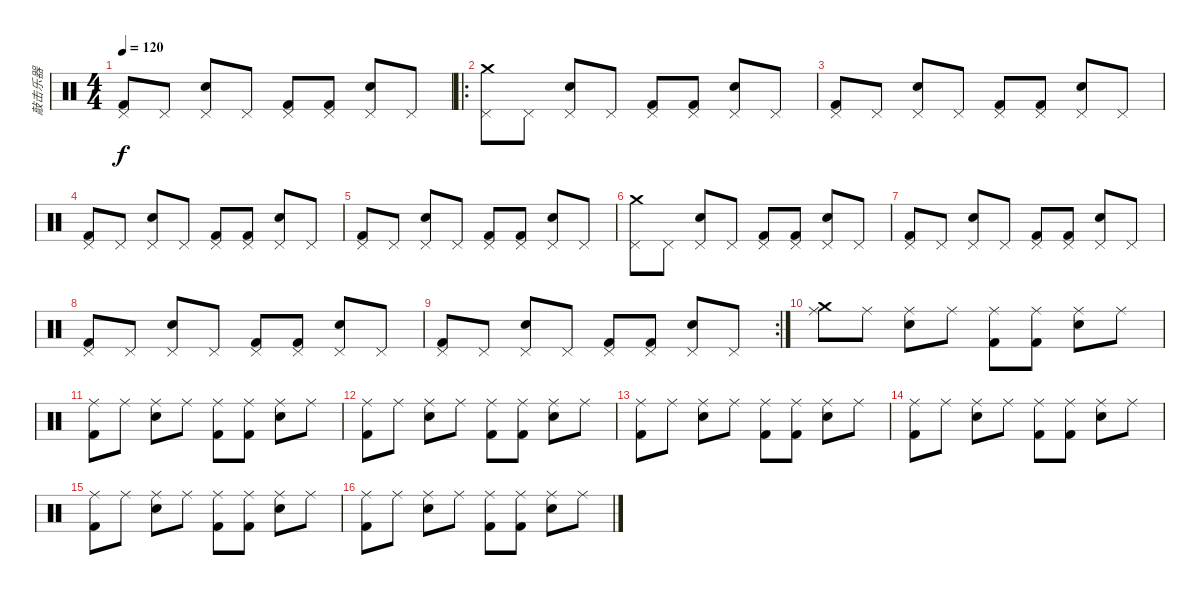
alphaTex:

\track ("敲击乐器" "敲击乐器") {instrument percussion}
\staff {score}
\articulation defaults
\ts (4 4)
\tempo 120
\clef neutral
\ks c
("Kick (hit) 2" "Pedal Hi-Hat (hit)").8{dy f} "Pedal Hi-Hat (hit)".8 ("Electric Snare (hit)" "Pedal Hi-Hat (hit)").8 "Pedal Hi-Hat (hit)".8 ("Kick (hit) 2" "Pedal Hi-Hat (hit)").8 ("Kick (hit) 2" "Pedal Hi-Hat (hit)").8 ("Electric Snare (hit)" "Pedal Hi-Hat (hit)").8 "Pedal Hi-Hat (hit)".8 |
\ro
("Crash medium (hit)" "Pedal Hi-Hat (hit)").8 "Pedal Hi-Hat (hit)".8 ("Electric Snare (hit)" "Pedal Hi-Hat (hit)").8 "Pedal Hi-Hat (hit)".8 ("Kick (hit) 2" "Pedal Hi-Hat (hit)").8 ("Kick (hit) 2" "Pedal Hi-Hat (hit)").8 ("Electric Snare (hit)" "Pedal Hi-Hat (hit)").8 "Pedal Hi-Hat (hit)".8 |
("Kick (hit) 2" "Pedal Hi-Hat (hit)").8 "Pedal Hi-Hat (hit)".8 ("Electric Snare (hit)" "Pedal Hi-Hat (hit)").8 "Pedal Hi-Hat (hit)".8 ("Kick (hit) 2" "Pedal Hi-Hat (hit)").8 ("Kick (hit) 2" "Pedal Hi-Hat (hit)").8 ("Electric Snare (hit)" "Pedal Hi-Hat (hit)").8 "Pedal Hi-Hat (hit)".8 |
("Kick (hit) 2" "Pedal Hi-Hat (hit)").8 "Pedal Hi-Hat (hit)".8 ("Electric Snare (hit)" "Pedal Hi-Hat (hit)").8 "Pedal Hi-Hat (hit)".8 ("Kick (hit) 2" "Pedal Hi-Hat (hit)").8 ("Kick (hit) 2" "Pedal Hi-Hat (hit)").8 ("Electric Snare (hit)" "Pedal Hi-Hat (hit)").8 "Pedal Hi-Hat (hit)".8 |
("Kick (hit) 2" "Pedal Hi-Hat (hit)").8 "Pedal Hi-Hat (hit)".8 ("Electric Snare (hit)" "Pedal Hi-Hat (hit)").8 "Pedal Hi-Hat (hit)".8 ("Kick (hit) 2" "Pedal Hi-Hat (hit)").8 ("Kick (hit) 2" "Pedal Hi-Hat (hit)").8 ("Electric Snare (hit)" "Pedal Hi-Hat (hit)").8 "Pedal Hi-Hat (hit)".8 |
("Crash medium (hit)" "Pedal Hi-Hat (hit)").8 "Pedal Hi-Hat (hit)".8 ("Electric Snare (hit)" "Pedal Hi-Hat (hit)").8 "Pedal Hi-Hat (hit)".8 ("Kick (hit) 2" "Pedal Hi-Hat (hit)").8 ("Kick (hit) 2" "Pedal Hi-Hat (hit)").8 ("Electric Snare (hit)" "Pedal Hi-Hat (hit)").8 "Pedal Hi-Hat (hit)".8 |
("Kick (hit) 2" "Pedal Hi-Hat (hit)").8 "Pedal Hi-Hat (hit)".8 ("Electric Snare (hit)" "Pedal Hi-Hat (hit)").8 "Pedal Hi-Hat (hit)".8 ("Kick (hit) 2" "Pedal Hi-Hat (hit)").8 ("Kick (hit) 2" "Pedal Hi-Hat (hit)").8 ("Electric Snare (hit)" "Pedal Hi-Hat (hit)").8 "Pedal Hi-Hat (hit)".8 |
("Kick (hit) 2" "Pedal Hi-Hat (hit)").8 "Pedal Hi-Hat (hit)".8 ("Electric Snare (hit)" "Pedal Hi-Hat (hit)").8 "Pedal Hi-Hat (hit)".8 ("Kick (hit) 2" "Pedal Hi-Hat (hit)").8 ("Kick (hit) 2" "Pedal Hi-Hat (hit)").8 ("Electric Snare (hit)" "Pedal Hi-Hat (hit)").8 "Pedal Hi-Hat (hit)".8 |
\rc 2
("Kick (hit) 2" "Pedal Hi-Hat (hit)").8 "Pedal Hi-Hat (hit)".8 ("Electric Snare (hit)" "Pedal Hi-Hat (hit)").8 "Pedal Hi-Hat (hit)".8 ("Kick (hit) 2" "Pedal Hi-Hat (hit)").8 ("Kick (hit) 2" "Pedal Hi-Hat (hit)").8 ("Electric Snare (hit)" "Pedal Hi-Hat (hit)").8 "Pedal Hi-Hat (hit)".8 |
("Crash medium (hit)" "Ride (middle)").8 "Ride (middle)".8 ("Electric Snare (hit)" "Ride (middle)").8 "Ride (middle)".8 ("Kick (hit) 2" "Ride (middle)").8 ("Kick (hit) 2" "Ride (middle)").8 ("Electric Snare (hit)" "Ride (middle)").8 "Ride (middle)".8 |
("Kick (hit) 2" "Ride (middle)").8 "Ride (middle)".8 ("Electric Snare (hit)" "Ride (middle)").8 "Ride (middle)".8 ("Kick (hit) 2" "Ride (middle)").8 ("Kick (hit) 2" "Ride (middle)").8 ("Electric Snare (hit)" "Ride (middle)").8 "Ride (middle)".8 |
("Kick (hit) 2" "Ride (middle)").8 "Ride (middle)".8 ("Electric Snare (hit)" "Ride (middle)").8 "Ride (middle)".8 ("Kick (hit) 2" "Ride (middle)").8 ("Kick (hit) 2" "Ride (middle)").8 ("Electric Snare (hit)" "Ride (middle)").8 "Ride (middle)".8 |
("Kick (hit) 2" "Ride (middle)").8 "Ride (middle)".8 ("Electric Snare (hit)" "Ride (middle)").8 "Ride (middle)".8 ("Kick (hit) 2" "Ride (middle)").8 ("Kick (hit) 2" "Ride (middle)").8 ("Electric Snare (hit)" "Ride (middle)").8 "Ride (middle)".8 |
("Kick (hit) 2" "Ride (middle)").8 "Ride (middle)".8 ("Electric Snare (hit)" "Ride (middle)").8 "Ride (middle)".8 ("Kick (hit) 2" "Ride (middle)").8 ("Kick (hit) 2" "Ride (middle)").8 ("Electric Snare (hit)" "Ride (middle)").8 "Ride (middle)".8 |
("Kick (hit) 2" "Ride (middle)").8 "Ride (middle)".8 ("Electric Snare (hit)" "Ride (middle)").8 "Ride (middle)".8 ("Kick (hit) 2" "Ride (middle)").8 ("Kick (hit) 2" "Ride (middle)").8 ("Electric Snare (hit)" "Ride (middle)").8 "Ride (middle)".8 |
("Kick (hit) 2" "Ride (middle)").8 "Ride (middle)".8 ("Electric Snare (hit)" "Ride (middle)").8 "Ride (middle)".8 ("Kick (hit) 2" "Ride (middle)").8 ("Kick (hit) 2" "Ride (middle)").8 ("Electric Snare (hit)" "Ride (middle)").8 "Ride (middle)".8
